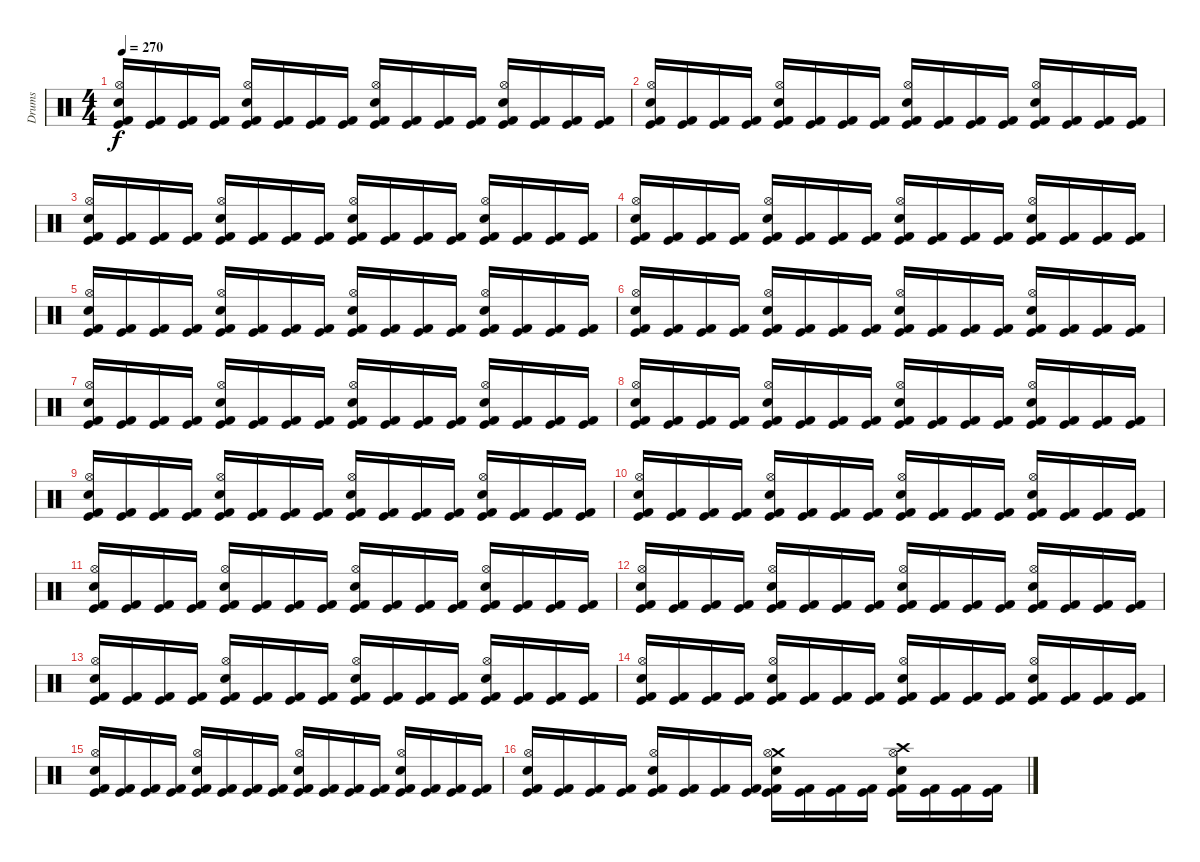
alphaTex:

\track ("Drums" "Drums") {instrument percussion}
\staff {score}
\articulation defaults
\ts (4 4)
\tempo 270
\clef neutral
\ks c
("Kick (hit) 2" "Hi-Hat (open)" "Electric Snare (hit)" "Kick (hit)").16{dy f} ("Kick (hit) 2" "Kick (hit)").16 ("Kick (hit) 2" "Kick (hit)").16 ("Kick (hit) 2" "Kick (hit)").16 ("Kick (hit) 2" "Hi-Hat (open)" "Electric Snare (hit)" "Kick (hit)").16 ("Kick (hit) 2" "Kick (hit)").16 ("Kick (hit) 2" "Kick (hit)").16 ("Kick (hit) 2" "Kick (hit)").16 ("Kick (hit) 2" "Hi-Hat (open)" "Electric Snare (hit)" "Kick (hit)").16 ("Kick (hit) 2" "Kick (hit)").16 ("Kick (hit) 2" "Kick (hit)").16 ("Kick (hit) 2" "Kick (hit)").16 ("Kick (hit) 2" "Hi-Hat (open)" "Electric Snare (hit)" "Kick (hit)").16 ("Kick (hit) 2" "Kick (hit)").16 ("Kick (hit) 2" "Kick (hit)").16 ("Kick (hit) 2" "Kick (hit)").16 |
("Kick (hit) 2" "Hi-Hat (open)" "Electric Snare (hit)" "Kick (hit)").16 ("Kick (hit) 2" "Kick (hit)").16 ("Kick (hit) 2" "Kick (hit)").16 ("Kick (hit) 2" "Kick (hit)").16 ("Kick (hit) 2" "Hi-Hat (open)" "Electric Snare (hit)" "Kick (hit)").16 ("Kick (hit) 2" "Kick (hit)").16 ("Kick (hit) 2" "Kick (hit)").16 ("Kick (hit) 2" "Kick (hit)").16 ("Kick (hit) 2" "Hi-Hat (open)" "Electric Snare (hit)" "Kick (hit)").16 ("Kick (hit) 2" "Kick (hit)").16 ("Kick (hit) 2" "Kick (hit)").16 ("Kick (hit) 2" "Kick (hit)").16 ("Kick (hit) 2" "Hi-Hat (open)" "Electric Snare (hit)" "Kick (hit)").16 ("Kick (hit) 2" "Kick (hit)").16 ("Kick (hit) 2" "Kick (hit)").16 ("Kick (hit) 2" "Kick (hit)").16 |
("Kick (hit) 2" "Hi-Hat (open)" "Electric Snare (hit)" "Kick (hit)").16 ("Kick (hit) 2" "Kick (hit)").16 ("Kick (hit) 2" "Kick (hit)").16 ("Kick (hit) 2" "Kick (hit)").16 ("Kick (hit) 2" "Hi-Hat (open)" "Electric Snare (hit)" "Kick (hit)").16 ("Kick (hit) 2" "Kick (hit)").16 ("Kick (hit) 2" "Kick (hit)").16 ("Kick (hit) 2" "Kick (hit)").16 ("Kick (hit) 2" "Hi-Hat (open)" "Electric Snare (hit)" "Kick (hit)").16 ("Kick (hit) 2" "Kick (hit)").16 ("Kick (hit) 2" "Kick (hit)").16 ("Kick (hit) 2" "Kick (hit)").16 ("Kick (hit) 2" "Hi-Hat (open)" "Electric Snare (hit)" "Kick (hit)").16 ("Kick (hit) 2" "Kick (hit)").16 ("Kick (hit) 2" "Kick (hit)").16 ("Kick (hit) 2" "Kick (hit)").16 |
("Kick (hit) 2" "Hi-Hat (open)" "Electric Snare (hit)" "Kick (hit)").16 ("Kick (hit) 2" "Kick (hit)").16 ("Kick (hit) 2" "Kick (hit)").16 ("Kick (hit) 2" "Kick (hit)").16 ("Kick (hit) 2" "Hi-Hat (open)" "Electric Snare (hit)" "Kick (hit)").16 ("Kick (hit) 2" "Kick (hit)").16 ("Kick (hit) 2" "Kick (hit)").16 ("Kick (hit) 2" "Kick (hit)").16 ("Kick (hit) 2" "Hi-Hat (open)" "Electric Snare (hit)" "Kick (hit)").16 ("Kick (hit) 2" "Kick (hit)").16 ("Kick (hit) 2" "Kick (hit)").16 ("Kick (hit) 2" "Kick (hit)").16 ("Kick (hit) 2" "Hi-Hat (open)" "Electric Snare (hit)" "Kick (hit)").16 ("Kick (hit) 2" "Kick (hit)").16 ("Kick (hit) 2" "Kick (hit)").16 ("Kick (hit) 2" "Kick (hit)").16 |
("Kick (hit) 2" "Hi-Hat (open)" "Electric Snare (hit)" "Kick (hit)").16 ("Kick (hit) 2" "Kick (hit)").16 ("Kick (hit) 2" "Kick (hit)").16 ("Kick (hit) 2" "Kick (hit)").16 ("Kick (hit) 2" "Hi-Hat (open)" "Electric Snare (hit)" "Kick (hit)").16 ("Kick (hit) 2" "Kick (hit)").16 ("Kick (hit) 2" "Kick (hit)").16 ("Kick (hit) 2" "Kick (hit)").16 ("Kick (hit) 2" "Hi-Hat (open)" "Electric Snare (hit)" "Kick (hit)").16 ("Kick (hit) 2" "Kick (hit)").16 ("Kick (hit) 2" "Kick (hit)").16 ("Kick (hit) 2" "Kick (hit)").16 ("Kick (hit) 2" "Hi-Hat (open)" "Electric Snare (hit)" "Kick (hit)").16 ("Kick (hit) 2" "Kick (hit)").16 ("Kick (hit) 2" "Kick (hit)").16 ("Kick (hit) 2" "Kick (hit)").16 |
("Kick (hit) 2" "Hi-Hat (open)" "Electric Snare (hit)" "Kick (hit)").16 ("Kick (hit) 2" "Kick (hit)").16 ("Kick (hit) 2" "Kick (hit)").16 ("Kick (hit) 2" "Kick (hit)").16 ("Kick (hit) 2" "Hi-Hat (open)" "Electric Snare (hit)" "Kick (hit)").16 ("Kick (hit) 2" "Kick (hit)").16 ("Kick (hit) 2" "Kick (hit)").16 ("Kick (hit) 2" "Kick (hit)").16 ("Kick (hit) 2" "Hi-Hat (open)" "Electric Snare (hit)" "Kick (hit)").16 ("Kick (hit) 2" "Kick (hit)").16 ("Kick (hit) 2" "Kick (hit)").16 ("Kick (hit) 2" "Kick (hit)").16 ("Kick (hit) 2" "Hi-Hat (open)" "Electric Snare (hit)" "Kick (hit)").16 ("Kick (hit) 2" "Kick (hit)").16 ("Kick (hit) 2" "Kick (hit)").16 ("Kick (hit) 2" "Kick (hit)").16 |
("Kick (hit) 2" "Hi-Hat (open)" "Electric Snare (hit)" "Kick (hit)").16 ("Kick (hit) 2" "Kick (hit)").16 ("Kick (hit) 2" "Kick (hit)").16 ("Kick (hit) 2" "Kick (hit)").16 ("Kick (hit) 2" "Hi-Hat (open)" "Electric Snare (hit)" "Kick (hit)").16 ("Kick (hit) 2" "Kick (hit)").16 ("Kick (hit) 2" "Kick (hit)").16 ("Kick (hit) 2" "Kick (hit)").16 ("Kick (hit) 2" "Hi-Hat (open)" "Electric Snare (hit)" "Kick (hit)").16 ("Kick (hit) 2" "Kick (hit)").16 ("Kick (hit) 2" "Kick (hit)").16 ("Kick (hit) 2" "Kick (hit)").16 ("Kick (hit) 2" "Hi-Hat (open)" "Electric Snare (hit)" "Kick (hit)").16 ("Kick (hit) 2" "Kick (hit)").16 ("Kick (hit) 2" "Kick (hit)").16 ("Kick (hit) 2" "Kick (hit)").16 |
("Kick (hit) 2" "Hi-Hat (open)" "Electric Snare (hit)" "Kick (hit)").16 ("Kick (hit) 2" "Kick (hit)").16 ("Kick (hit) 2" "Kick (hit)").16 ("Kick (hit) 2" "Kick (hit)").16 ("Kick (hit) 2" "Hi-Hat (open)" "Electric Snare (hit)" "Kick (hit)").16 ("Kick (hit) 2" "Kick (hit)").16 ("Kick (hit) 2" "Kick (hit)").16 ("Kick (hit) 2" "Kick (hit)").16 ("Kick (hit) 2" "Hi-Hat (open)" "Electric Snare (hit)" "Kick (hit)").16 ("Kick (hit) 2" "Kick (hit)").16 ("Kick (hit) 2" "Kick (hit)").16 ("Kick (hit) 2" "Kick (hit)").16 ("Kick (hit) 2" "Hi-Hat (open)" "Electric Snare (hit)" "Kick (hit)").16 ("Kick (hit) 2" "Kick (hit)").16 ("Kick (hit) 2" "Kick (hit)").16 ("Kick (hit) 2" "Kick (hit)").16 |
("Kick (hit) 2" "Hi-Hat (open)" "Electric Snare (hit)" "Kick (hit)").16 ("Kick (hit) 2" "Kick (hit)").16 ("Kick (hit) 2" "Kick (hit)").16 ("Kick (hit) 2" "Kick (hit)").16 ("Kick (hit) 2" "Hi-Hat (open)" "Electric Snare (hit)" "Kick (hit)").16 ("Kick (hit) 2" "Kick (hit)").16 ("Kick (hit) 2" "Kick (hit)").16 ("Kick (hit) 2" "Kick (hit)").16 ("Kick (hit) 2" "Hi-Hat (open)" "Electric Snare (hit)" "Kick (hit)").16 ("Kick (hit) 2" "Kick (hit)").16 ("Kick (hit) 2" "Kick (hit)").16 ("Kick (hit) 2" "Kick (hit)").16 ("Kick (hit) 2" "Hi-Hat (open)" "Electric Snare (hit)" "Kick (hit)").16 ("Kick (hit) 2" "Kick (hit)").16 ("Kick (hit) 2" "Kick (hit)").16 ("Kick (hit) 2" "Kick (hit)").16 |
("Kick (hit) 2" "Hi-Hat (open)" "Electric Snare (hit)" "Kick (hit)").16 ("Kick (hit) 2" "Kick (hit)").16 ("Kick (hit) 2" "Kick (hit)").16 ("Kick (hit) 2" "Kick (hit)").16 ("Kick (hit) 2" "Hi-Hat (open)" "Electric Snare (hit)" "Kick (hit)").16 ("Kick (hit) 2" "Kick (hit)").16 ("Kick (hit) 2" "Kick (hit)").16 ("Kick (hit) 2" "Kick (hit)").16 ("Kick (hit) 2" "Hi-Hat (open)" "Electric Snare (hit)" "Kick (hit)").16 ("Kick (hit) 2" "Kick (hit)").16 ("Kick (hit) 2" "Kick (hit)").16 ("Kick (hit) 2" "Kick (hit)").16 ("Kick (hit) 2" "Hi-Hat (open)" "Electric Snare (hit)" "Kick (hit)").16 ("Kick (hit) 2" "Kick (hit)").16 ("Kick (hit) 2" "Kick (hit)").16 ("Kick (hit) 2" "Kick (hit)").16 |
("Kick (hit) 2" "Hi-Hat (open)" "Electric Snare (hit)" "Kick (hit)").16 ("Kick (hit) 2" "Kick (hit)").16 ("Kick (hit) 2" "Kick (hit)").16 ("Kick (hit) 2" "Kick (hit)").16 ("Kick (hit) 2" "Hi-Hat (open)" "Electric Snare (hit)" "Kick (hit)").16 ("Kick (hit) 2" "Kick (hit)").16 ("Kick (hit) 2" "Kick (hit)").16 ("Kick (hit) 2" "Kick (hit)").16 ("Kick (hit) 2" "Hi-Hat (open)" "Electric Snare (hit)" "Kick (hit)").16 ("Kick (hit) 2" "Kick (hit)").16 ("Kick (hit) 2" "Kick (hit)").16 ("Kick (hit) 2" "Kick (hit)").16 ("Kick (hit) 2" "Hi-Hat (open)" "Electric Snare (hit)" "Kick (hit)").16 ("Kick (hit) 2" "Kick (hit)").16 ("Kick (hit) 2" "Kick (hit)").16 ("Kick (hit) 2" "Kick (hit)").16 |
("Kick (hit) 2" "Hi-Hat (open)" "Electric Snare (hit)" "Kick (hit)").16 ("Kick (hit) 2" "Kick (hit)").16 ("Kick (hit) 2" "Kick (hit)").16 ("Kick (hit) 2" "Kick (hit)").16 ("Kick (hit) 2" "Hi-Hat (open)" "Electric Snare (hit)" "Kick (hit)").16 ("Kick (hit) 2" "Kick (hit)").16 ("Kick (hit) 2" "Kick (hit)").16 ("Kick (hit) 2" "Kick (hit)").16 ("Kick (hit) 2" "Hi-Hat (open)" "Electric Snare (hit)" "Kick (hit)").16 ("Kick (hit) 2" "Kick (hit)").16 ("Kick (hit) 2" "Kick (hit)").16 ("Kick (hit) 2" "Kick (hit)").16 ("Kick (hit) 2" "Hi-Hat (open)" "Electric Snare (hit)" "Kick (hit)").16 ("Kick (hit) 2" "Kick (hit)").16 ("Kick (hit) 2" "Kick (hit)").16 ("Kick (hit) 2" "Kick (hit)").16 |
("Kick (hit) 2" "Hi-Hat (open)" "Electric Snare (hit)" "Kick (hit)").16 ("Kick (hit) 2" "Kick (hit)").16 ("Kick (hit) 2" "Kick (hit)").16 ("Kick (hit) 2" "Kick (hit)").16 ("Kick (hit) 2" "Hi-Hat (open)" "Electric Snare (hit)" "Kick (hit)").16 ("Kick (hit) 2" "Kick (hit)").16 ("Kick (hit) 2" "Kick (hit)").16 ("Kick (hit) 2" "Kick (hit)").16 ("Kick (hit) 2" "Hi-Hat (open)" "Electric Snare (hit)" "Kick (hit)").16 ("Kick (hit) 2" "Kick (hit)").16 ("Kick (hit) 2" "Kick (hit)").16 ("Kick (hit) 2" "Kick (hit)").16 ("Kick (hit) 2" "Hi-Hat (open)" "Electric Snare (hit)" "Kick (hit)").16 ("Kick (hit) 2" "Kick (hit)").16 ("Kick (hit) 2" "Kick (hit)").16 ("Kick (hit) 2" "Kick (hit)").16 |
("Kick (hit) 2" "Hi-Hat (open)" "Electric Snare (hit)" "Kick (hit)").16 ("Kick (hit) 2" "Kick (hit)").16 ("Kick (hit) 2" "Kick (hit)").16 ("Kick (hit) 2" "Kick (hit)").16 ("Kick (hit) 2" "Hi-Hat (open)" "Electric Snare (hit)" "Kick (hit)").16 ("Kick (hit) 2" "Kick (hit)").16 ("Kick (hit) 2" "Kick (hit)").16 ("Kick (hit) 2" "Kick (hit)").16 ("Kick (hit) 2" "Hi-Hat (open)" "Electric Snare (hit)" "Kick (hit)").16 ("Kick (hit) 2" "Kick (hit)").16 ("Kick (hit) 2" "Kick (hit)").16 ("Kick (hit) 2" "Kick (hit)").16 ("Kick (hit) 2" "Hi-Hat (open)" "Electric Snare (hit)" "Kick (hit)").16 ("Kick (hit) 2" "Kick (hit)").16 ("Kick (hit) 2" "Kick (hit)").16 ("Kick (hit) 2" "Kick (hit)").16 |
("Kick (hit) 2" "Hi-Hat (open)" "Electric Snare (hit)" "Kick (hit)").16 ("Kick (hit) 2" "Kick (hit)").16 ("Kick (hit) 2" "Kick (hit)").16 ("Kick (hit) 2" "Kick (hit)").16 ("Kick (hit) 2" "Hi-Hat (open)" "Electric Snare (hit)" "Kick (hit)").16 ("Kick (hit) 2" "Kick (hit)").16 ("Kick (hit) 2" "Kick (hit)").16 ("Kick (hit) 2" "Kick (hit)").16 ("Kick (hit) 2" "Hi-Hat (open)" "Electric Snare (hit)" "Kick (hit)").16 ("Kick (hit) 2" "Kick (hit)").16 ("Kick (hit) 2" "Kick (hit)").16 ("Kick (hit) 2" "Kick (hit)").16 ("Kick (hit) 2" "Hi-Hat (open)" "Electric Snare (hit)" "Kick (hit)").16 ("Kick (hit) 2" "Kick (hit)").16 ("Kick (hit) 2" "Kick (hit)").16 ("Kick (hit) 2" "Kick (hit)").16 |
("Kick (hit) 2" "Hi-Hat (open)" "Electric Snare (hit)" "Kick (hit)").16 ("Kick (hit) 2" "Kick (hit)").16 ("Kick (hit) 2" "Kick (hit)").16 ("Kick (hit) 2" "Kick (hit)").16 ("Kick (hit) 2" "Hi-Hat (open)" "Electric Snare (hit)" "Kick (hit)").16 ("Kick (hit) 2" "Kick (hit)").16 ("Kick (hit) 2" "Kick (hit)").16 ("Kick (hit) 2" "Kick (hit)").16 ("Crash medium (hit)" "Kick (hit) 2" "Hi-Hat (open)" "Electric Snare (hit)" "Kick (hit)").16 ("Kick (hit) 2" "Kick (hit)").16 ("Kick (hit) 2" "Kick (hit)").16 ("Kick (hit) 2" "Kick (hit)").16 ("Crash high (hit)" "Kick (hit) 2" "Hi-Hat (open)" "Electric Snare (hit)" "Kick (hit)").16 ("Kick (hit) 2" "Kick (hit)").16 ("Kick (hit) 2" "Kick (hit)").16 ("Kick (hit) 2" "Kick (hit)").16
